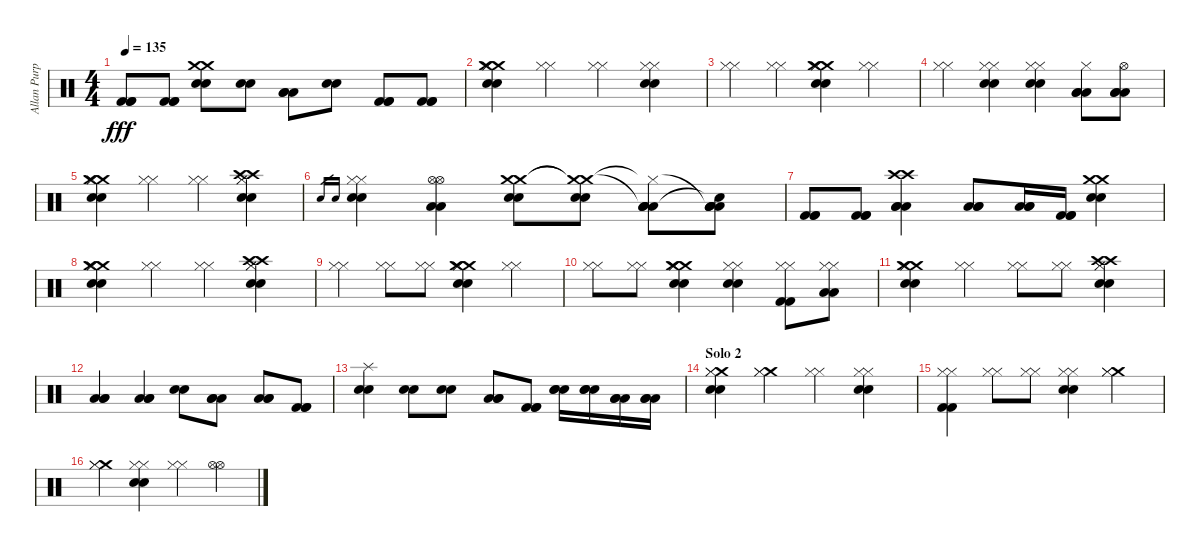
\track ("Allan Purple" "Allan Purp") {instrument percussion}
\staff {score}
\articulation defaults
\ts (4 4)
\tempo 135
\clef neutral
\ks c
("Kick (hit) 2" "Kick (hit) 2" "Kick (hit) 2").8{dy fff} ("Kick (hit) 2" "Kick (hit) 2" "Kick (hit) 2").8 ("Crash medium (hit)" "Crash medium (hit)" "Electric Snare (hit)" "Electric Snare (hit)").8 ("Electric Snare (hit)" "Electric Snare (hit)").8 ("Low Tom (hit)" "Low Tom (hit)" "Low Tom (hit)").8 ("Electric Snare (hit)" "Electric Snare (hit)").8 ("Kick (hit) 2" "Kick (hit) 2" "Kick (hit) 2").8 ("Kick (hit) 2" "Kick (hit) 2" "Kick (hit) 2").8 |
("Crash medium (hit)" "Crash medium (hit)" "Hi-Hat (closed)" "Hi-Hat (closed)" "Electric Snare (hit)" "Electric Snare (hit)").4 ("Hi-Hat (closed)" "Hi-Hat (closed)").4 ("Hi-Hat (closed)" "Hi-Hat (closed)").4 ("Hi-Hat (closed)" "Hi-Hat (closed)" "Electric Snare (hit)" "Electric Snare (hit)").4 |
("Hi-Hat (closed)" "Hi-Hat (closed)").4 ("Hi-Hat (closed)" "Hi-Hat (closed)").4 ("Crash medium (hit)" "Crash medium (hit)" "Hi-Hat (closed)" "Hi-Hat (closed)" "Electric Snare (hit)" "Electric Snare (hit)").4 ("Hi-Hat (closed)" "Hi-Hat (closed)").4 |
("Hi-Hat (closed)" "Hi-Hat (closed)").4 ("Hi-Hat (closed)" "Hi-Hat (closed)" "Electric Snare (hit)" "Electric Snare (hit)").4 ("Hi-Hat (closed)" "Hi-Hat (closed)" "Electric Snare (hit)" "Electric Snare (hit)").4 ("Hi-Hat (closed)" "Low Tom (hit)" "Low Tom (hit)" "Low Tom (hit)").8 ("Hi-Hat (open)" "Low Tom (hit)" "Low Tom (hit)" "Low Tom (hit)").8 |
("Crash medium (hit)" "Crash medium (hit)" "Hi-Hat (closed)" "Hi-Hat (closed)" "Electric Snare (hit)" "Electric Snare (hit)").4 ("Hi-Hat (closed)" "Hi-Hat (closed)").4 ("Hi-Hat (closed)" "Hi-Hat (closed)").4 ("Crash high (hit)" "Crash high (hit)" "Hi-Hat (closed)" "Hi-Hat (closed)" "Electric Snare (hit)" "Electric Snare (hit)").4 |
"Electric Snare (hit)".16{gr} "Electric Snare (hit)".16{gr} ("Hi-Hat (closed)" "Hi-Hat (closed)" "Electric Snare (hit)" "Electric Snare (hit)").4 ("Hi-Hat (open)" "Hi-Hat (open)" "Low Tom (hit)" "Low Tom (hit)").4 ("Crash medium (hit)" "Crash medium (hit)" "Electric Snare (hit)" "Electric Snare (hit)").8 ("Crash medium (hit)"{t} "Crash medium (hit)"{t} "Electric Snare (hit)" "Electric Snare (hit)").8 ("Low Tom (hit)"{t} "Hi-Hat (closed)"{t} "Low Tom (hit)" "Low Tom (hit)" "Low Tom (hit)").8 ("Electric Snare (hit)"{t} "Low Tom (hit)"{t} "Low Tom (hit)" "Low Tom (hit)" "Low Tom (hit)").8 |
("Kick (hit) 2" "Kick (hit) 2" "Kick (hit) 2").8 ("Kick (hit) 2" "Kick (hit) 2" "Kick (hit) 2").8 ("Crash high (hit)" "Crash high (hit)" "Low Tom (hit)" "Low Tom (hit)" "Low Tom (hit)").4 ("Low Tom (hit)" "Low Tom (hit)" "Low Tom (hit)").8 ("Low Tom (hit)" "Low Tom (hit)" "Low Tom (hit)").16 ("Kick (hit) 2" "Kick (hit) 2" "Kick (hit) 2").16 ("Crash medium (hit)" "Crash medium (hit)" "Electric Snare (hit)" "Electric Snare (hit)").4 |
("Crash medium (hit)" "Crash medium (hit)" "Hi-Hat (closed)" "Hi-Hat (closed)" "Electric Snare (hit)" "Electric Snare (hit)").4 ("Hi-Hat (closed)" "Hi-Hat (closed)").4 ("Hi-Hat (closed)" "Hi-Hat (closed)").4 ("Crash high (hit)" "Crash high (hit)" "Hi-Hat (closed)" "Hi-Hat (closed)" "Electric Snare (hit)" "Electric Snare (hit)").4 |
("Hi-Hat (closed)" "Hi-Hat (closed)").4 ("Hi-Hat (closed)" "Hi-Hat (closed)").8 ("Hi-Hat (closed)" "Hi-Hat (closed)").8 ("Crash medium (hit)" "Crash medium (hit)" "Hi-Hat (closed)" "Hi-Hat (closed)" "Electric Snare (hit)" "Electric Snare (hit)").4 ("Hi-Hat (closed)" "Hi-Hat (closed)").4 |
("Hi-Hat (closed)" "Hi-Hat (closed)").8 ("Hi-Hat (closed)" "Hi-Hat (closed)").8 ("Crash medium (hit)" "Crash medium (hit)" "Hi-Hat (closed)" "Hi-Hat (closed)" "Electric Snare (hit)" "Electric Snare (hit)").4 ("Hi-Hat (closed)" "Hi-Hat (closed)" "Electric Snare (hit)" "Electric Snare (hit)").4 ("Hi-Hat (closed)" "Hi-Hat (closed)" "Kick (hit) 2" "Kick (hit) 2").8 ("Hi-Hat (closed)" "Hi-Hat (closed)" "Low Tom (hit)" "Low Tom (hit)").8 |
("Crash medium (hit)" "Crash medium (hit)" "Hi-Hat (closed)" "Hi-Hat (closed)" "Electric Snare (hit)" "Electric Snare (hit)").4 ("Hi-Hat (closed)" "Hi-Hat (closed)").4 ("Hi-Hat (closed)" "Hi-Hat (closed)").8 ("Hi-Hat (closed)" "Hi-Hat (closed)").8 ("Crash high (hit)" "Crash high (hit)" "Hi-Hat (closed)" "Hi-Hat (closed)" "Electric Snare (hit)" "Electric Snare (hit)").4 |
("Low Floor Tom (hit)" "Low Floor Tom (hit)" "Low Floor Tom (hit)").4 ("Low Tom (hit)" "Low Tom (hit)" "Low Tom (hit)").4 ("Electric Snare (hit)" "Electric Snare (hit)").8 ("Low Tom (hit)" "Low Tom (hit)" "Low Tom (hit)").8 ("Low Tom (hit)" "Low Tom (hit)" "Low Tom (hit)").8 ("Kick (hit) 2" "Kick (hit) 2" "Kick (hit) 2").8 |
("Splash (hit)" "Electric Snare (hit)" "Electric Snare (hit)").4 ("Electric Snare (hit)" "Electric Snare (hit)").8 ("Electric Snare (hit)" "Electric Snare (hit)").8 ("Low Tom (hit)" "Low Tom (hit)" "Low Tom (hit)").8 ("Kick (hit) 2" "Kick (hit) 2" "Kick (hit) 2").8 ("Electric Snare (hit)" "Electric Snare (hit)" "Electric Snare (hit)").16 ("Electric Snare (hit)" "Electric Snare (hit)" "Electric Snare (hit)").16 ("Low Tom (hit)" "Low Tom (hit)" "Low Tom (hit)").16 ("Low Tom (hit)" "Low Tom (hit)" "Low Tom (hit)").16 |
\section ("" "Solo 2")
("Crash medium (hit)" "Hi-Hat (closed)" "Hi-Hat (closed)" "Electric Snare (hit)" "Electric Snare (hit)").4 ("Crash medium (hit)" "Hi-Hat (closed)" "Hi-Hat (closed)").4 ("Hi-Hat (closed)" "Hi-Hat (closed)").4 ("Hi-Hat (closed)" "Hi-Hat (closed)" "Electric Snare (hit)" "Electric Snare (hit)").4 |
("Hi-Hat (closed)" "Hi-Hat (closed)" "Kick (hit) 2" "Kick (hit) 2").4 ("Hi-Hat (closed)" "Hi-Hat (closed)").8 ("Hi-Hat (closed)" "Hi-Hat (closed)").8 ("Hi-Hat (closed)" "Hi-Hat (closed)" "Electric Snare (hit)" "Electric Snare (hit)").4 ("Crash medium (hit)" "Hi-Hat (closed)" "Hi-Hat (closed)").4 |
("Crash medium (hit)" "Hi-Hat (closed)" "Hi-Hat (closed)").4 ("Hi-Hat (closed)" "Hi-Hat (closed)" "Electric Snare (hit)" "Electric Snare (hit)").4 ("Hi-Hat (closed)" "Hi-Hat (closed)").4 ("Hi-Hat (open)" "Hi-Hat (open)").4
